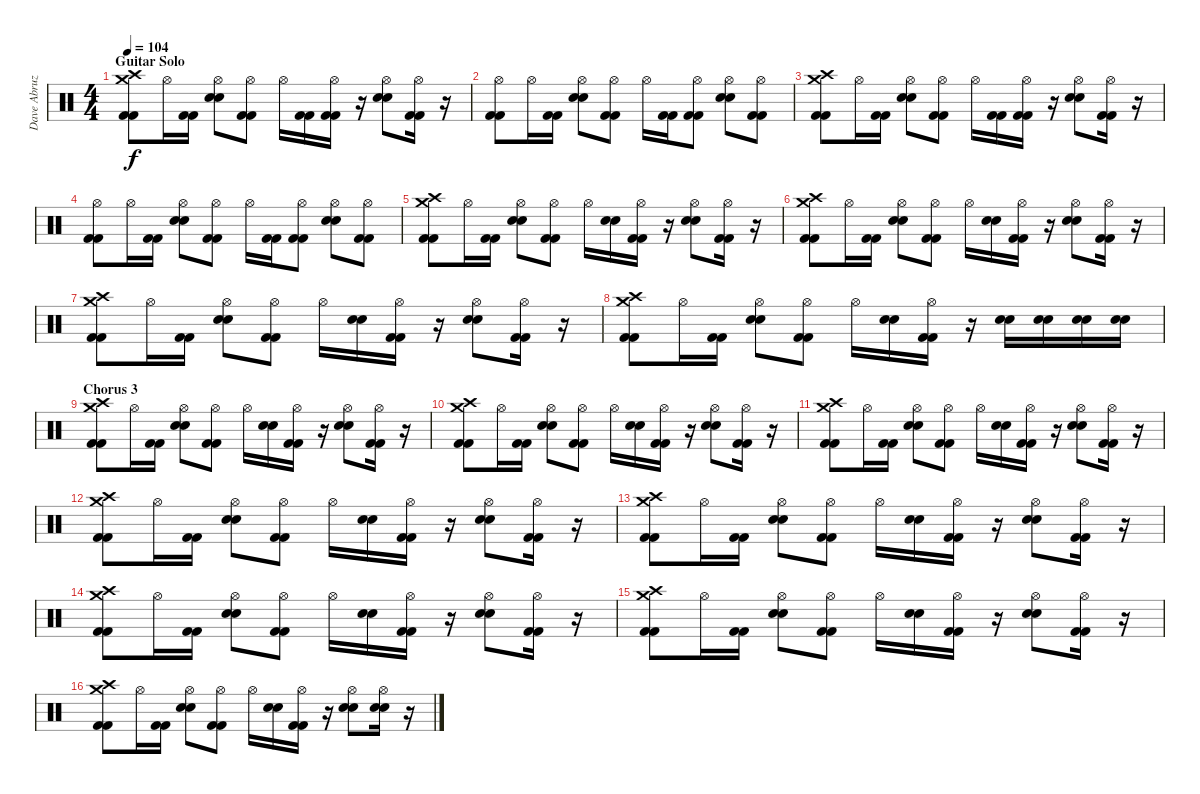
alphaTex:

\track ("Dave Abruzzese" "Dave Abruz") {instrument percussion}
\staff {score}
\articulation defaults
\ts (4 4)
\section ("" "Guitar Solo")
\tempo 104
\clef neutral
\ks c
("Crash medium (hit)" "Kick (hit) 2" "Kick (hit) 2" "Crash high (hit)").8{dy f} "Hi-Hat (open)".16 ("Kick (hit) 2" "Kick (hit) 2").16 ("Electric Snare (hit)" "Electric Snare (hit)" "Hi-Hat (open)").8 ("Kick (hit) 2" "Kick (hit) 2" "Hi-Hat (open)").8 "Hi-Hat (open)".16 ("Kick (hit) 2" "Kick (hit) 2").16 ("Kick (hit) 2" "Kick (hit) 2" "Hi-Hat (open)").16 r.16 ("Electric Snare (hit)" "Electric Snare (hit)" "Hi-Hat (open)").8 ("Kick (hit) 2" "Kick (hit) 2" "Hi-Hat (open)").16 r.16 |
("Kick (hit) 2" "Kick (hit) 2" "Hi-Hat (open)").8 "Hi-Hat (open)".16 ("Kick (hit) 2" "Kick (hit) 2").16 ("Electric Snare (hit)" "Electric Snare (hit)" "Hi-Hat (open)").8 ("Kick (hit) 2" "Kick (hit) 2" "Hi-Hat (open)").8 "Hi-Hat (open)".16 ("Kick (hit) 2" "Kick (hit) 2").16 ("Kick (hit) 2" "Kick (hit) 2" "Hi-Hat (open)").8 ("Electric Snare (hit)" "Electric Snare (hit)" "Hi-Hat (open)").8 ("Kick (hit) 2" "Kick (hit) 2" "Hi-Hat (open)").8 |
("Crash medium (hit)" "Kick (hit) 2" "Kick (hit) 2" "Crash high (hit)").8 "Hi-Hat (open)".16 ("Kick (hit) 2" "Kick (hit) 2").16 ("Electric Snare (hit)" "Electric Snare (hit)" "Hi-Hat (open)").8 ("Kick (hit) 2" "Kick (hit) 2" "Hi-Hat (open)").8 "Hi-Hat (open)".16 ("Kick (hit) 2" "Kick (hit) 2").16 ("Kick (hit) 2" "Kick (hit) 2" "Hi-Hat (open)").16 r.16 ("Electric Snare (hit)" "Electric Snare (hit)" "Hi-Hat (open)").8 ("Kick (hit) 2" "Kick (hit) 2" "Hi-Hat (open)").16 r.16 |
("Kick (hit) 2" "Kick (hit) 2" "Hi-Hat (open)").8 "Hi-Hat (open)".16 ("Kick (hit) 2" "Kick (hit) 2").16 ("Electric Snare (hit)" "Electric Snare (hit)" "Hi-Hat (open)").8 ("Kick (hit) 2" "Kick (hit) 2" "Hi-Hat (open)").8 "Hi-Hat (open)".16 ("Kick (hit) 2" "Kick (hit) 2").16 ("Kick (hit) 2" "Kick (hit) 2" "Hi-Hat (open)").8 ("Electric Snare (hit)" "Electric Snare (hit)" "Hi-Hat (open)").8 ("Kick (hit) 2" "Kick (hit) 2" "Hi-Hat (open)").8 |
("Crash medium (hit)" "Kick (hit) 2" "Kick (hit) 2" "Crash high (hit)").8 "Hi-Hat (open)".16 ("Kick (hit) 2" "Kick (hit) 2").16 ("Electric Snare (hit)" "Electric Snare (hit)" "Hi-Hat (open)").8 ("Kick (hit) 2" "Kick (hit) 2" "Hi-Hat (open)").8 "Hi-Hat (open)".16 ("Electric Snare (hit)" "Electric Snare (hit)").16 ("Kick (hit) 2" "Kick (hit) 2" "Hi-Hat (open)").16 r.16 ("Electric Snare (hit)" "Electric Snare (hit)" "Hi-Hat (open)").8 ("Kick (hit) 2" "Kick (hit) 2" "Hi-Hat (open)").16 r.16 |
("Crash medium (hit)" "Kick (hit) 2" "Kick (hit) 2" "Crash high (hit)").8 "Hi-Hat (open)".16 ("Kick (hit) 2" "Kick (hit) 2").16 ("Electric Snare (hit)" "Electric Snare (hit)" "Hi-Hat (open)").8 ("Kick (hit) 2" "Kick (hit) 2" "Hi-Hat (open)").8 "Hi-Hat (open)".16 ("Electric Snare (hit)" "Electric Snare (hit)").16 ("Kick (hit) 2" "Kick (hit) 2" "Hi-Hat (open)").16 r.16 ("Electric Snare (hit)" "Electric Snare (hit)" "Hi-Hat (open)").8 ("Kick (hit) 2" "Kick (hit) 2" "Hi-Hat (open)").16 r.16 |
("Crash medium (hit)" "Kick (hit) 2" "Kick (hit) 2" "Crash high (hit)").8 "Hi-Hat (open)".16 ("Kick (hit) 2" "Kick (hit) 2").16 ("Electric Snare (hit)" "Electric Snare (hit)" "Hi-Hat (open)").8 ("Kick (hit) 2" "Kick (hit) 2" "Hi-Hat (open)").8 "Hi-Hat (open)".16 ("Electric Snare (hit)" "Electric Snare (hit)").16 ("Kick (hit) 2" "Kick (hit) 2" "Hi-Hat (open)").16 r.16 ("Electric Snare (hit)" "Electric Snare (hit)" "Hi-Hat (open)").8 ("Kick (hit) 2" "Kick (hit) 2" "Hi-Hat (open)").16 r.16 |
("Crash medium (hit)" "Kick (hit) 2" "Kick (hit) 2" "Crash high (hit)").8 "Hi-Hat (open)".16 ("Kick (hit) 2" "Kick (hit) 2").16 ("Electric Snare (hit)" "Electric Snare (hit)" "Hi-Hat (open)").8 ("Kick (hit) 2" "Kick (hit) 2" "Hi-Hat (open)").8 "Hi-Hat (open)".16 ("Electric Snare (hit)" "Electric Snare (hit)").16 ("Kick (hit) 2" "Kick (hit) 2" "Hi-Hat (open)").16 r.16 ("Electric Snare (hit)" "Electric Snare (hit)").16 ("Electric Snare (hit)" "Electric Snare (hit)").16 ("Electric Snare (hit)" "Electric Snare (hit)").16 ("Electric Snare (hit)" "Electric Snare (hit)").16 |
\section ("" "Chorus 3")
("Crash medium (hit)" "Kick (hit) 2" "Kick (hit) 2" "Crash high (hit)").8 "Hi-Hat (open)".16 ("Kick (hit) 2" "Kick (hit) 2").16 ("Electric Snare (hit)" "Electric Snare (hit)" "Hi-Hat (open)").8 ("Kick (hit) 2" "Kick (hit) 2" "Hi-Hat (open)").8 "Hi-Hat (open)".16 ("Electric Snare (hit)" "Electric Snare (hit)").16 ("Kick (hit) 2" "Kick (hit) 2" "Hi-Hat (open)").16 r.16 ("Electric Snare (hit)" "Electric Snare (hit)" "Hi-Hat (open)").8 ("Kick (hit) 2" "Kick (hit) 2" "Hi-Hat (open)").16 r.16 |
("Crash medium (hit)" "Kick (hit) 2" "Kick (hit) 2" "Crash high (hit)").8 "Hi-Hat (open)".16 ("Kick (hit) 2" "Kick (hit) 2").16 ("Electric Snare (hit)" "Electric Snare (hit)" "Hi-Hat (open)").8 ("Kick (hit) 2" "Kick (hit) 2" "Hi-Hat (open)").8 "Hi-Hat (open)".16 ("Electric Snare (hit)" "Electric Snare (hit)").16 ("Kick (hit) 2" "Kick (hit) 2" "Hi-Hat (open)").16 r.16 ("Electric Snare (hit)" "Electric Snare (hit)" "Hi-Hat (open)").8 ("Kick (hit) 2" "Kick (hit) 2" "Hi-Hat (open)").16 r.16 |
("Crash medium (hit)" "Kick (hit) 2" "Kick (hit) 2" "Crash high (hit)").8 "Hi-Hat (open)".16 ("Kick (hit) 2" "Kick (hit) 2").16 ("Electric Snare (hit)" "Electric Snare (hit)" "Hi-Hat (open)").8 ("Kick (hit) 2" "Kick (hit) 2" "Hi-Hat (open)").8 "Hi-Hat (open)".16 ("Electric Snare (hit)" "Electric Snare (hit)").16 ("Kick (hit) 2" "Kick (hit) 2" "Hi-Hat (open)").16 r.16 ("Electric Snare (hit)" "Electric Snare (hit)" "Hi-Hat (open)").8 ("Kick (hit) 2" "Kick (hit) 2" "Hi-Hat (open)").16 r.16 |
("Crash medium (hit)" "Kick (hit) 2" "Kick (hit) 2" "Crash high (hit)").8 "Hi-Hat (open)".16 ("Kick (hit) 2" "Kick (hit) 2").16 ("Electric Snare (hit)" "Electric Snare (hit)" "Hi-Hat (open)").8 ("Kick (hit) 2" "Kick (hit) 2" "Hi-Hat (open)").8 "Hi-Hat (open)".16 ("Electric Snare (hit)" "Electric Snare (hit)").16 ("Kick (hit) 2" "Kick (hit) 2" "Hi-Hat (open)").16 r.16 ("Electric Snare (hit)" "Electric Snare (hit)" "Hi-Hat (open)").8 ("Kick (hit) 2" "Kick (hit) 2" "Hi-Hat (open)").16 r.16 |
("Crash medium (hit)" "Kick (hit) 2" "Kick (hit) 2" "Crash high (hit)").8 "Hi-Hat (open)".16 ("Kick (hit) 2" "Kick (hit) 2").16 ("Electric Snare (hit)" "Electric Snare (hit)" "Hi-Hat (open)").8 ("Kick (hit) 2" "Kick (hit) 2" "Hi-Hat (open)").8 "Hi-Hat (open)".16 ("Electric Snare (hit)" "Electric Snare (hit)").16 ("Kick (hit) 2" "Kick (hit) 2" "Hi-Hat (open)").16 r.16 ("Electric Snare (hit)" "Electric Snare (hit)" "Hi-Hat (open)").8 ("Kick (hit) 2" "Kick (hit) 2" "Hi-Hat (open)").16 r.16 |
("Crash medium (hit)" "Kick (hit) 2" "Kick (hit) 2" "Crash high (hit)").8 "Hi-Hat (open)".16 ("Kick (hit) 2" "Kick (hit) 2").16 ("Electric Snare (hit)" "Electric Snare (hit)" "Hi-Hat (open)").8 ("Kick (hit) 2" "Kick (hit) 2" "Hi-Hat (open)").8 "Hi-Hat (open)".16 ("Electric Snare (hit)" "Electric Snare (hit)").16 ("Kick (hit) 2" "Kick (hit) 2" "Hi-Hat (open)").16 r.16 ("Electric Snare (hit)" "Electric Snare (hit)" "Hi-Hat (open)").8 ("Kick (hit) 2" "Kick (hit) 2" "Hi-Hat (open)").16 r.16 |
("Crash medium (hit)" "Kick (hit) 2" "Kick (hit) 2" "Crash high (hit)").8 "Hi-Hat (open)".16 ("Kick (hit) 2" "Kick (hit) 2").16 ("Electric Snare (hit)" "Electric Snare (hit)" "Hi-Hat (open)").8 ("Kick (hit) 2" "Kick (hit) 2" "Hi-Hat (open)").8 "Hi-Hat (open)".16 ("Electric Snare (hit)" "Electric Snare (hit)").16 ("Kick (hit) 2" "Kick (hit) 2" "Hi-Hat (open)").16 r.16 ("Electric Snare (hit)" "Electric Snare (hit)" "Hi-Hat (open)").8 ("Kick (hit) 2" "Kick (hit) 2" "Hi-Hat (open)").16 r.16 |
("Crash medium (hit)" "Kick (hit) 2" "Kick (hit) 2" "Crash high (hit)").8 "Hi-Hat (open)".16 ("Kick (hit) 2" "Kick (hit) 2").16 ("Electric Snare (hit)" "Electric Snare (hit)" "Hi-Hat (open)").8 ("Kick (hit) 2" "Kick (hit) 2" "Hi-Hat (open)").8 "Hi-Hat (open)".16 ("Electric Snare (hit)" "Electric Snare (hit)").16 ("Kick (hit) 2" "Kick (hit) 2" "Hi-Hat (open)").16 r.16 ("Electric Snare (hit)" "Electric Snare (hit)" "Hi-Hat (open)").8 ("Electric Snare (hit)" "Electric Snare (hit)" "Hi-Hat (open)").16 r.16
